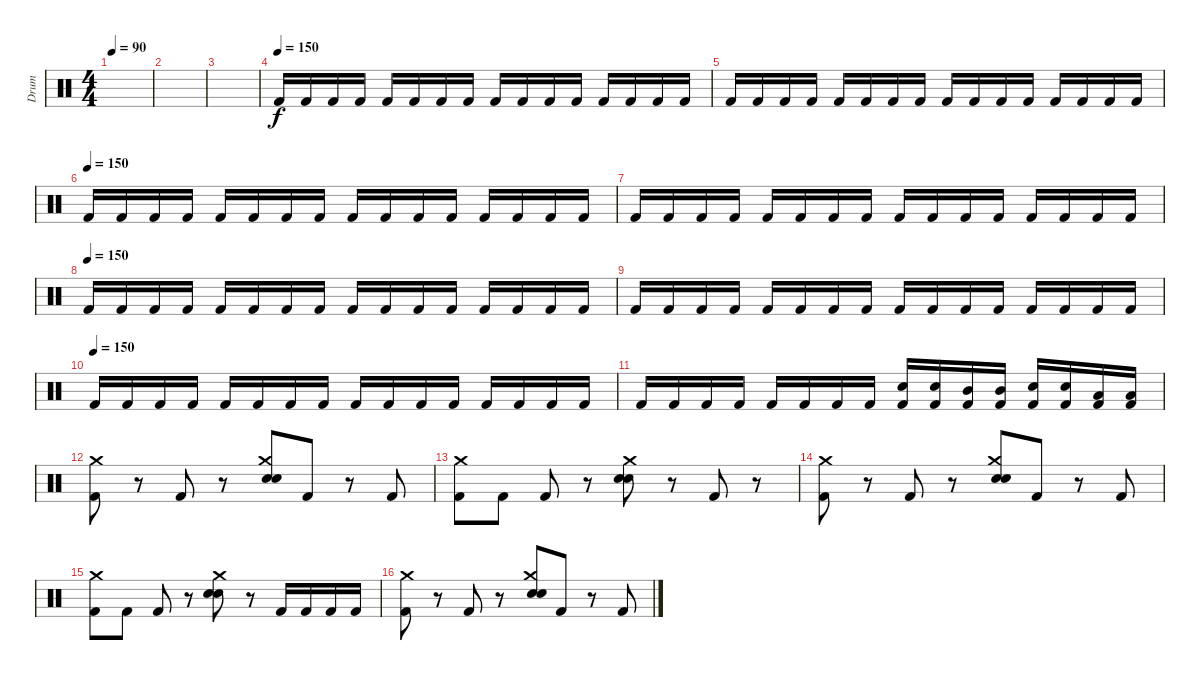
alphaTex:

\track ("Drum" "Drum") {instrument percussion}
\staff {score}
\articulation defaults
\ts (4 4)
\tempo 90
\clef neutral
\ks c
|
|
|
\tempo (150)
"Kick (hit) 2".16 "Kick (hit) 2".16 "Kick (hit) 2".16 "Kick (hit) 2".16 "Kick (hit) 2".16 "Kick (hit) 2".16 "Kick (hit) 2".16 "Kick (hit) 2".16 "Kick (hit) 2".16 "Kick (hit) 2".16 "Kick (hit) 2".16 "Kick (hit) 2".16 "Kick (hit) 2".16 "Kick (hit) 2".16 "Kick (hit) 2".16 "Kick (hit) 2".16 |
"Kick (hit) 2".16 "Kick (hit) 2".16 "Kick (hit) 2".16 "Kick (hit) 2".16 "Kick (hit) 2".16 "Kick (hit) 2".16 "Kick (hit) 2".16 "Kick (hit) 2".16 "Kick (hit) 2".16 "Kick (hit) 2".16 "Kick (hit) 2".16 "Kick (hit) 2".16 "Kick (hit) 2".16 "Kick (hit) 2".16 "Kick (hit) 2".16 "Kick (hit) 2".16 |
\tempo (150)
"Kick (hit) 2".16 "Kick (hit) 2".16 "Kick (hit) 2".16 "Kick (hit) 2".16 "Kick (hit) 2".16 "Kick (hit) 2".16 "Kick (hit) 2".16 "Kick (hit) 2".16 "Kick (hit) 2".16 "Kick (hit) 2".16 "Kick (hit) 2".16 "Kick (hit) 2".16 "Kick (hit) 2".16 "Kick (hit) 2".16 "Kick (hit) 2".16 "Kick (hit) 2".16 |
"Kick (hit) 2".16 "Kick (hit) 2".16 "Kick (hit) 2".16 "Kick (hit) 2".16 "Kick (hit) 2".16 "Kick (hit) 2".16 "Kick (hit) 2".16 "Kick (hit) 2".16 "Kick (hit) 2".16 "Kick (hit) 2".16 "Kick (hit) 2".16 "Kick (hit) 2".16 "Kick (hit) 2".16 "Kick (hit) 2".16 "Kick (hit) 2".16 "Kick (hit) 2".16 |
\tempo (150)
"Kick (hit) 2".16 "Kick (hit) 2".16 "Kick (hit) 2".16 "Kick (hit) 2".16 "Kick (hit) 2".16 "Kick (hit) 2".16 "Kick (hit) 2".16 "Kick (hit) 2".16 "Kick (hit) 2".16 "Kick (hit) 2".16 "Kick (hit) 2".16 "Kick (hit) 2".16 "Kick (hit) 2".16 "Kick (hit) 2".16 "Kick (hit) 2".16 "Kick (hit) 2".16 |
"Kick (hit) 2".16 "Kick (hit) 2".16 "Kick (hit) 2".16 "Kick (hit) 2".16 "Kick (hit) 2".16 "Kick (hit) 2".16 "Kick (hit) 2".16 "Kick (hit) 2".16 "Kick (hit) 2".16 "Kick (hit) 2".16 "Kick (hit) 2".16 "Kick (hit) 2".16 "Kick (hit) 2".16 "Kick (hit) 2".16 "Kick (hit) 2".16 "Kick (hit) 2".16 |
\tempo (150)
"Kick (hit) 2".16 "Kick (hit) 2".16 "Kick (hit) 2".16 "Kick (hit) 2".16 "Kick (hit) 2".16 "Kick (hit) 2".16 "Kick (hit) 2".16 "Kick (hit) 2".16 "Kick (hit) 2".16 "Kick (hit) 2".16 "Kick (hit) 2".16 "Kick (hit) 2".16 "Kick (hit) 2".16 "Kick (hit) 2".16 "Kick (hit) 2".16 "Kick (hit) 2".16 |
"Kick (hit) 2".16 "Kick (hit) 2".16 "Kick (hit) 2".16 "Kick (hit) 2".16 "Kick (hit) 2".16 "Kick (hit) 2".16 "Kick (hit) 2".16 "Kick (hit) 2".16 ("Electric Snare (hit)" "Kick (hit) 2").16 ("Electric Snare (hit)" "Kick (hit) 2").16 ("Mid Tom (hit)" "Kick (hit) 2").16 ("Mid Tom (hit)" "Kick (hit) 2").16 ("Electric Snare (hit)" "Kick (hit) 2").16 ("Electric Snare (hit)" "Kick (hit) 2").16 ("Low Tom (hit)" "Kick (hit) 2").16 ("Low Tom (hit)" "Kick (hit) 2").16 |
("Crash medium (hit)" "Kick (hit) 2").8 r.8 "Kick (hit) 2".8 r.8 ("Crash medium (hit)" "Snare (hit) 2" "Electric Snare (hit)").8 "Kick (hit) 2".8 r.8 "Kick (hit) 2".8 |
("Crash medium (hit)" "Kick (hit) 2").8 "Kick (hit) 2".8 "Kick (hit) 2".8 r.8 ("Crash medium (hit)" "Snare (hit) 2" "Electric Snare (hit)").8 r.8 "Kick (hit) 2".8 r.8 |
("Crash medium (hit)" "Kick (hit) 2").8 r.8 "Kick (hit) 2".8 r.8 ("Crash medium (hit)" "Snare (hit) 2" "Electric Snare (hit)").8 "Kick (hit) 2".8 r.8 "Kick (hit) 2".8 |
("Crash medium (hit)" "Kick (hit) 2").8 "Kick (hit) 2".8 "Kick (hit) 2".8 r.8 ("Crash medium (hit)" "Snare (hit) 2" "Electric Snare (hit)").8 r.8 "Kick (hit) 2".16 "Kick (hit) 2".16 "Kick (hit) 2".16 "Kick (hit) 2".16 |
("Crash medium (hit)" "Kick (hit) 2").8 r.8 "Kick (hit) 2".8 r.8 ("Crash medium (hit)" "Snare (hit) 2" "Electric Snare (hit)").8 "Kick (hit) 2".8 r.8 "Kick (hit) 2".8
